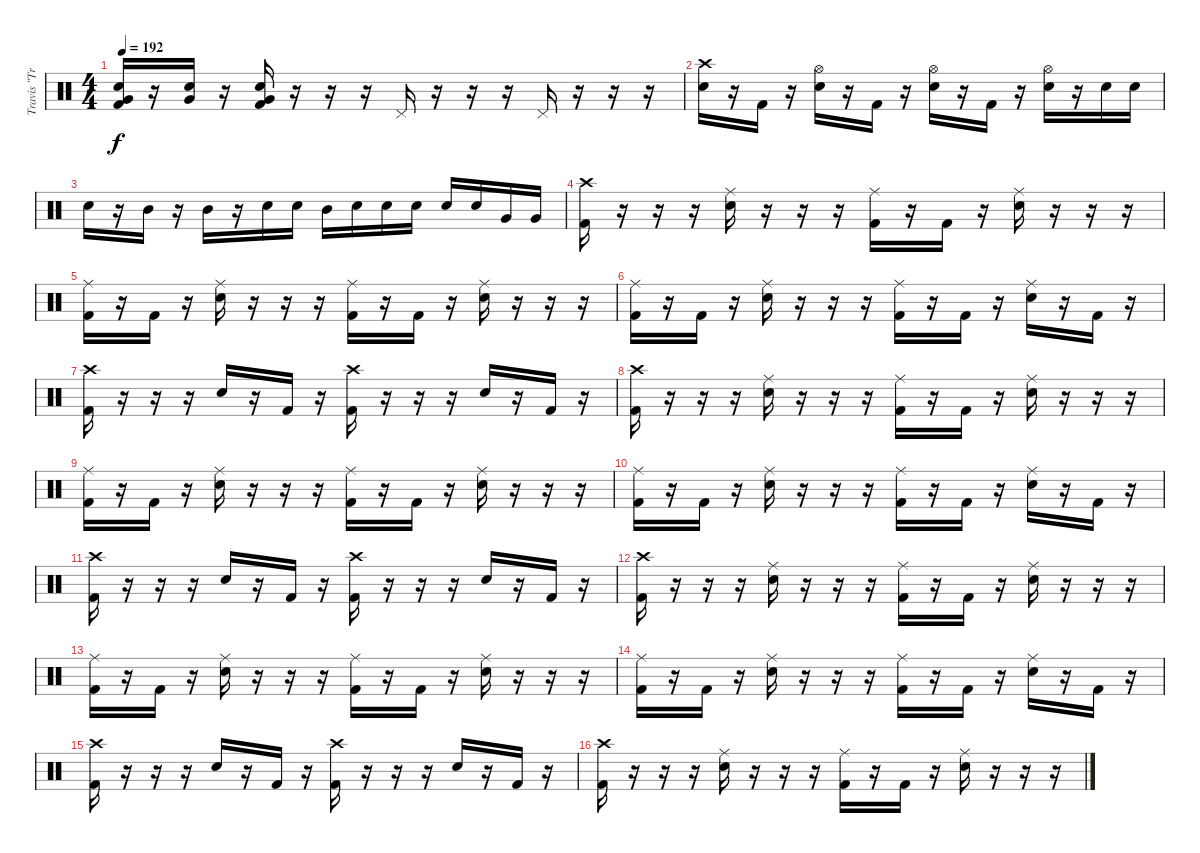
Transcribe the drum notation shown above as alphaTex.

\track ("Travis \"Trevor\" Barker" "Travis \"Tr") {instrument percussion}
\staff {score}
\articulation defaults
\ts (4 4)
\tempo 192
\clef neutral
\ks c
("Snare (hit) 2" "Very Low Tom (hit)" "Kick (hit) 2").16{dy f} r.16 ("Snare (hit) 2" "Very Low Tom (hit)").16 r.16 ("Snare (hit) 2" "Very Low Tom (hit)" "Kick (hit) 2").16 r.16 r.16 r.16 "Pedal Hi-Hat (hit)".16 r.16 r.16 r.16 "Pedal Hi-Hat (hit)".16 r.16 r.16 r.16 |
("Crash high (hit)" "Snare (hit) 2").16 r.16 "Kick (hit) 2".16 r.16 ("Hi-Hat (open)" "Snare (hit) 2").16 r.16 "Kick (hit) 2".16 r.16 ("Hi-Hat (open)" "Snare (hit) 2").16 r.16 "Kick (hit) 2".16 r.16 ("Hi-Hat (open)" "Snare (hit) 2").16 r.16 "Snare (hit) 2".16 "Snare (hit) 2".16 |
"Snare (hit) 2".16 r.16 "Mid Tom (hit)".16 r.16 "Mid Tom (hit)".16 r.16 "Snare (hit) 2".16 "Snare (hit) 2".16 "Mid Tom (hit)".16 "Snare (hit) 2".16 "Snare (hit) 2".16 "Snare (hit) 2".16 "Snare (hit) 2".16 "Snare (hit) 2".16 "Very Low Tom (hit)".16 "Very Low Tom (hit)".16 |
("Crash high (hit)" "Kick (hit) 2").16 r.16 r.16 r.16 ("Ride (middle)" "Snare (hit) 2").16 r.16 r.16 r.16 ("Ride (middle)" "Kick (hit) 2").16 r.16 "Kick (hit) 2".16 r.16 ("Ride (middle)" "Snare (hit) 2").16 r.16 r.16 r.16 |
("Ride (middle)" "Kick (hit) 2").16 r.16 "Kick (hit) 2".16 r.16 ("Ride (middle)" "Snare (hit) 2").16 r.16 r.16 r.16 ("Ride (middle)" "Kick (hit) 2").16 r.16 "Kick (hit) 2".16 r.16 ("Ride (middle)" "Snare (hit) 2").16 r.16 r.16 r.16 |
("Ride (middle)" "Kick (hit) 2").16 r.16 "Kick (hit) 2".16 r.16 ("Ride (middle)" "Snare (hit) 2").16 r.16 r.16 r.16 ("Ride (middle)" "Kick (hit) 2").16 r.16 "Kick (hit) 2".16 r.16 ("Ride (middle)" "Snare (hit) 2").16 r.16 "Kick (hit) 2".16 r.16 |
("Crash high (hit)" "Kick (hit) 2").16 r.16 r.16 r.16 "Snare (hit) 2".16 r.16 "Kick (hit) 2".16 r.16 ("Crash high (hit)" "Kick (hit) 2").16 r.16 r.16 r.16 "Snare (hit) 2".16 r.16 "Kick (hit) 2".16 r.16 |
("Crash high (hit)" "Kick (hit) 2").16 r.16 r.16 r.16 ("Ride (middle)" "Snare (hit) 2").16 r.16 r.16 r.16 ("Ride (middle)" "Kick (hit) 2").16 r.16 "Kick (hit) 2".16 r.16 ("Ride (middle)" "Snare (hit) 2").16 r.16 r.16 r.16 |
("Ride (middle)" "Kick (hit) 2").16 r.16 "Kick (hit) 2".16 r.16 ("Ride (middle)" "Snare (hit) 2").16 r.16 r.16 r.16 ("Ride (middle)" "Kick (hit) 2").16 r.16 "Kick (hit) 2".16 r.16 ("Ride (middle)" "Snare (hit) 2").16 r.16 r.16 r.16 |
("Ride (middle)" "Kick (hit) 2").16 r.16 "Kick (hit) 2".16 r.16 ("Ride (middle)" "Snare (hit) 2").16 r.16 r.16 r.16 ("Ride (middle)" "Kick (hit) 2").16 r.16 "Kick (hit) 2".16 r.16 ("Ride (middle)" "Snare (hit) 2").16 r.16 "Kick (hit) 2".16 r.16 |
("Crash high (hit)" "Kick (hit) 2").16 r.16 r.16 r.16 "Snare (hit) 2".16 r.16 "Kick (hit) 2".16 r.16 ("Crash high (hit)" "Kick (hit) 2").16 r.16 r.16 r.16 "Snare (hit) 2".16 r.16 "Kick (hit) 2".16 r.16 |
("Crash high (hit)" "Kick (hit) 2").16 r.16 r.16 r.16 ("Ride (middle)" "Snare (hit) 2").16 r.16 r.16 r.16 ("Ride (middle)" "Kick (hit) 2").16 r.16 "Kick (hit) 2".16 r.16 ("Ride (middle)" "Snare (hit) 2").16 r.16 r.16 r.16 |
("Ride (middle)" "Kick (hit) 2").16 r.16 "Kick (hit) 2".16 r.16 ("Ride (middle)" "Snare (hit) 2").16 r.16 r.16 r.16 ("Ride (middle)" "Kick (hit) 2").16 r.16 "Kick (hit) 2".16 r.16 ("Ride (middle)" "Snare (hit) 2").16 r.16 r.16 r.16 |
("Ride (middle)" "Kick (hit) 2").16 r.16 "Kick (hit) 2".16 r.16 ("Ride (middle)" "Snare (hit) 2").16 r.16 r.16 r.16 ("Ride (middle)" "Kick (hit) 2").16 r.16 "Kick (hit) 2".16 r.16 ("Ride (middle)" "Snare (hit) 2").16 r.16 "Kick (hit) 2".16 r.16 |
("Crash high (hit)" "Kick (hit) 2").16 r.16 r.16 r.16 "Snare (hit) 2".16 r.16 "Kick (hit) 2".16 r.16 ("Crash high (hit)" "Kick (hit) 2").16 r.16 r.16 r.16 "Snare (hit) 2".16 r.16 "Kick (hit) 2".16 r.16 |
("Crash high (hit)" "Kick (hit) 2").16 r.16 r.16 r.16 ("Ride (middle)" "Snare (hit) 2").16 r.16 r.16 r.16 ("Ride (middle)" "Kick (hit) 2").16 r.16 "Kick (hit) 2".16 r.16 ("Ride (middle)" "Snare (hit) 2").16 r.16 r.16 r.16
